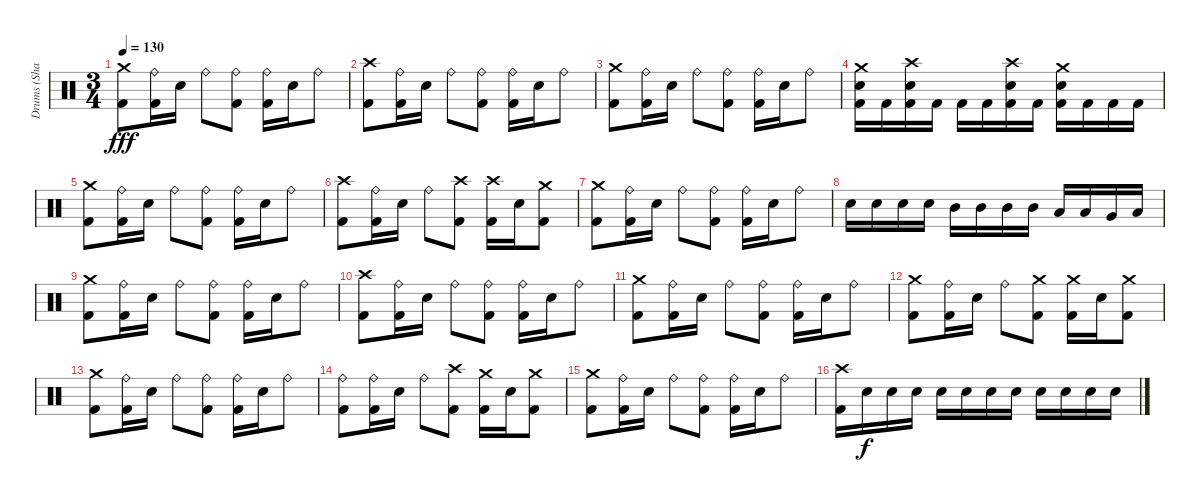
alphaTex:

\track ("Drums (Shawn)" "Drums (Sha") {instrument percussion}
\staff {score}
\articulation defaults
\ts (3 4)
\tempo 130
\clef neutral
\ks c
("Crash medium (hit)" "Kick (hit) 2").8{dy fff} ("Ride (bell)" "Kick (hit) 2").16 "Snare (hit) 2".16 "Ride (bell)".8 ("Ride (bell)" "Kick (hit) 2").8 ("Ride (bell)" "Kick (hit) 2").16 "Snare (hit) 2".16 "Ride (bell)".8 |
("Crash high (hit)" "Kick (hit) 2").8 ("Ride (bell)" "Kick (hit) 2").16 "Snare (hit) 2".16 "Ride (bell)".8 ("Ride (bell)" "Kick (hit) 2").8 ("Ride (bell)" "Kick (hit) 2").16 "Snare (hit) 2".16 "Ride (bell)".8 |
("Crash medium (hit)" "Kick (hit) 2").8 ("Ride (bell)" "Kick (hit) 2").16 "Snare (hit) 2".16 "Ride (bell)".8 ("Ride (bell)" "Kick (hit) 2").8 ("Ride (bell)" "Kick (hit) 2").16 "Snare (hit) 2".16 "Ride (bell)".8 |
("Crash medium (hit)" "Snare (hit) 2" "Kick (hit) 2").16 "Kick (hit) 2".16 ("Crash high (hit)" "Snare (hit) 2" "Kick (hit) 2").16 "Kick (hit) 2".16 "Kick (hit) 2".16 "Kick (hit) 2".16 ("Crash high (hit)" "Snare (hit) 2" "Kick (hit) 2").16 "Kick (hit) 2".16 ("Crash medium (hit)" "Snare (hit) 2" "Kick (hit) 2").16 "Kick (hit) 2".16 "Kick (hit) 2".16 "Kick (hit) 2".16 |
("Crash medium (hit)" "Kick (hit) 2").8 ("Ride (bell)" "Kick (hit) 2").16 "Snare (hit) 2".16 "Ride (bell)".8 ("Ride (bell)" "Kick (hit) 2").8 ("Ride (bell)" "Kick (hit) 2").16 "Snare (hit) 2".16 "Ride (bell)".8 |
("Crash high (hit)" "Kick (hit) 2").8 ("Ride (bell)" "Kick (hit) 2").16 "Snare (hit) 2".16 "Ride (bell)".8 ("Crash high (hit)" "Kick (hit) 2").8 ("Crash high (hit)" "Kick (hit) 2").16 "Snare (hit) 2".16 ("Crash medium (hit)" "Kick (hit) 2").8 |
("Crash medium (hit)" "Kick (hit) 2").8 ("Ride (bell)" "Kick (hit) 2").16 "Snare (hit) 2".16 "Ride (bell)".8 ("Ride (bell)" "Kick (hit) 2").8 ("Ride (bell)" "Kick (hit) 2").16 "Snare (hit) 2".16 "Ride (bell)".8 |
"Snare (hit) 2".16 "Snare (hit) 2".16 "Snare (hit) 2".16 "Snare (hit) 2".16 "Mid Tom (hit)".16 "Mid Tom (hit)".16 "Mid Tom (hit)".16 "Mid Tom (hit)".16 "Low Tom (hit)".16 "Low Tom (hit)".16 "Very Low Tom (hit)".16 "Low Floor Tom (hit)".16 |
("Crash medium (hit)" "Kick (hit) 2").8 ("Ride (bell)" "Kick (hit) 2").16 "Snare (hit) 2".16 "Ride (bell)".8 ("Ride (bell)" "Kick (hit) 2").8 ("Ride (bell)" "Kick (hit) 2").16 "Snare (hit) 2".16 "Ride (bell)".8 |
("Crash high (hit)" "Kick (hit) 2").8 ("Ride (bell)" "Kick (hit) 2").16 "Snare (hit) 2".16 "Ride (bell)".8 ("Ride (bell)" "Kick (hit) 2").8 ("Ride (bell)" "Kick (hit) 2").16 "Snare (hit) 2".16 "Ride (bell)".8 |
("Crash medium (hit)" "Kick (hit) 2").8 ("Ride (bell)" "Kick (hit) 2").16 "Snare (hit) 2".16 "Ride (bell)".8 ("Ride (bell)" "Kick (hit) 2").8 ("Ride (bell)" "Kick (hit) 2").16 "Snare (hit) 2".16 "Ride (bell)".8 |
("Crash medium (hit)" "Kick (hit) 2").8 ("Ride (bell)" "Kick (hit) 2").16 "Snare (hit) 2".16 "Ride (bell)".8 ("Crash medium (hit)" "Kick (hit) 2").8 ("Crash medium (hit)" "Kick (hit) 2").16 "Snare (hit) 2".16 ("Crash medium (hit)" "Kick (hit) 2").8 |
("Crash medium (hit)" "Kick (hit) 2").8{volume 15} ("Ride (bell)" "Kick (hit) 2").16 "Snare (hit) 2".16 "Ride (bell)".8 ("Ride (bell)" "Kick (hit) 2").8 ("Ride (bell)" "Kick (hit) 2").16 "Snare (hit) 2".16 "Ride (bell)".8 |
("Ride (bell)" "Kick (hit) 2").8{volume 14} ("Ride (bell)" "Kick (hit) 2").16 "Snare (hit) 2".16 "Ride (bell)".8 ("Crash high (hit)" "Kick (hit) 2").8 ("Crash medium (hit)" "Kick (hit) 2").16 "Snare (hit) 2".16 ("Crash medium (hit)" "Kick (hit) 2").8 |
("Crash medium (hit)" "Kick (hit) 2").8{volume 13} ("Ride (bell)" "Kick (hit) 2").16 "Snare (hit) 2".16 "Ride (bell)".8 ("Ride (bell)" "Kick (hit) 2").8 ("Ride (bell)" "Kick (hit) 2").16 "Snare (hit) 2".16 "Ride (bell)".8 |
("Crash high (hit)" "Kick (hit) 2").16{volume 12} "Snare (hit) 2".16{dy f} "Snare (hit) 2".16 "Snare (hit) 2".16 "Snare (hit) 2".16 "Snare (hit) 2".16 "Snare (hit) 2".16 "Snare (hit) 2".16 "Snare (hit) 2".16 "Snare (hit) 2".16 "Snare (hit) 2".16 "Snare (hit) 2".16
